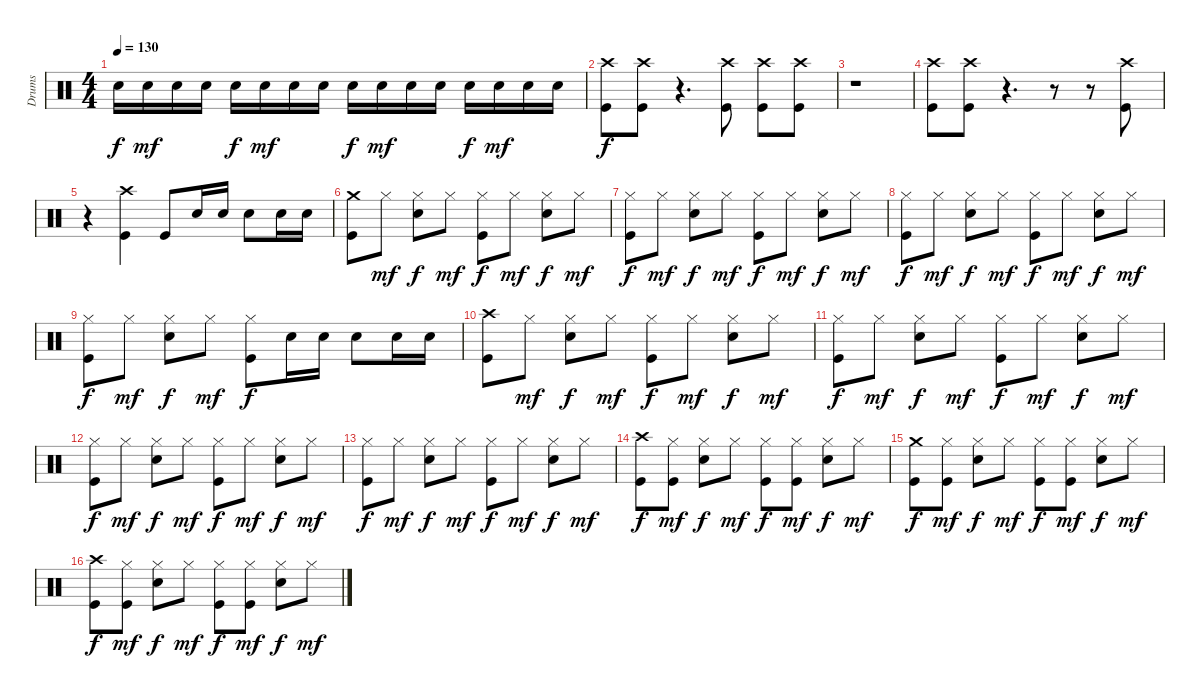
\track ("Drums" "Drums") {instrument percussion}
\staff {score}
\articulation defaults
\ts (4 4)
\tempo 130
\clef neutral
\ks c "Snare (hit) 2".16{dy f} "Snare (hit) 2".16{dy mf} "Snare (hit) 2".16 "Snare (hit) 2".16 "Snare (hit) 2".16{dy f} "Snare (hit) 2".16{dy mf} "Snare (hit) 2".16 "Snare (hit) 2".16 "Snare (hit) 2".16{dy f} "Snare (hit) 2".16{dy mf} "Snare (hit) 2".16 "Snare (hit) 2".16 "Snare (hit) 2".16{dy f} "Snare (hit) 2".16{dy mf} "Snare (hit) 2".16 "Snare (hit) 2".16
|
("Kick (hit)" "Crash high (hit)").8{dy f} ("Kick (hit)" "Crash high (hit)").8 r.4{d} ("Kick (hit)" "Crash high (hit)").8 ("Kick (hit)" "Crash high (hit)").8 ("Kick (hit)" "Crash high (hit)").8 |
r.1 |
("Kick (hit)" "Crash high (hit)").8 ("Kick (hit)" "Crash high (hit)").8 r.4{d} r.8 r.8 ("Kick (hit)" "Crash high (hit)").8 |
r.4 ("Kick (hit)" "Crash high (hit)").4 "Kick (hit)".8 "Snare (hit) 2".16 "Snare (hit) 2".16 "Snare (hit) 2".8 "Snare (hit) 2".16 "Snare (hit) 2".16 |
("Kick (hit)" "Crash medium (hit)").8 "Hi-Hat (closed)".8{dy mf} ("Hi-Hat (closed)" "Snare (hit) 2").8{dy f} "Hi-Hat (closed)".8{dy mf} ("Hi-Hat (closed)" "Kick (hit)").8{dy f} "Hi-Hat (closed)".8{dy mf} ("Hi-Hat (closed)" "Snare (hit) 2").8{dy f} "Hi-Hat (closed)".8{dy mf} |
("Hi-Hat (closed)" "Kick (hit)").8{dy f} "Hi-Hat (closed)".8{dy mf} ("Hi-Hat (closed)" "Snare (hit) 2").8{dy f} "Hi-Hat (closed)".8{dy mf} ("Hi-Hat (closed)" "Kick (hit)").8{dy f} "Hi-Hat (closed)".8{dy mf} ("Hi-Hat (closed)" "Snare (hit) 2").8{dy f} "Hi-Hat (closed)".8{dy mf} |
("Hi-Hat (closed)" "Kick (hit)").8{dy f} "Hi-Hat (closed)".8{dy mf} ("Hi-Hat (closed)" "Snare (hit) 2").8{dy f} "Hi-Hat (closed)".8{dy mf} ("Hi-Hat (closed)" "Kick (hit)").8{dy f} "Hi-Hat (closed)".8{dy mf} ("Hi-Hat (closed)" "Snare (hit) 2").8{dy f} "Hi-Hat (closed)".8{dy mf} |
("Hi-Hat (closed)" "Kick (hit)").8{dy f} "Hi-Hat (closed)".8{dy mf} ("Hi-Hat (closed)" "Snare (hit) 2").8{dy f} "Hi-Hat (closed)".8{dy mf} ("Hi-Hat (closed)" "Kick (hit)").8{dy f} "Snare (hit) 2".16 "Snare (hit) 2".16 "Snare (hit) 2".8 "Snare (hit) 2".16 "Snare (hit) 2".16 |
("Kick (hit)" "Crash high (hit)").8 "Hi-Hat (closed)".8{dy mf} ("Hi-Hat (closed)" "Snare (hit) 2").8{dy f} "Hi-Hat (closed)".8{dy mf} ("Hi-Hat (closed)" "Kick (hit)").8{dy f} "Hi-Hat (closed)".8{dy mf} ("Hi-Hat (closed)" "Snare (hit) 2").8{dy f} "Hi-Hat (closed)".8{dy mf} |
("Hi-Hat (closed)" "Kick (hit)").8{dy f} "Hi-Hat (closed)".8{dy mf} ("Hi-Hat (closed)" "Snare (hit) 2").8{dy f} "Hi-Hat (closed)".8{dy mf} ("Hi-Hat (closed)" "Kick (hit)").8{dy f} "Hi-Hat (closed)".8{dy mf} ("Hi-Hat (closed)" "Snare (hit) 2").8{dy f} "Hi-Hat (closed)".8{dy mf} |
("Hi-Hat (closed)" "Kick (hit)").8{dy f} "Hi-Hat (closed)".8{dy mf} ("Hi-Hat (closed)" "Snare (hit) 2").8{dy f} "Hi-Hat (closed)".8{dy mf} ("Hi-Hat (closed)" "Kick (hit)").8{dy f} "Hi-Hat (closed)".8{dy mf} ("Hi-Hat (closed)" "Snare (hit) 2").8{dy f} "Hi-Hat (closed)".8{dy mf} |
("Hi-Hat (closed)" "Kick (hit)").8{dy f} "Hi-Hat (closed)".8{dy mf} ("Hi-Hat (closed)" "Snare (hit) 2").8{dy f} "Hi-Hat (closed)".8{dy mf} ("Hi-Hat (closed)" "Kick (hit)").8{dy f} "Hi-Hat (closed)".8{dy mf} ("Hi-Hat (closed)" "Snare (hit) 2").8{dy f} "Hi-Hat (closed)".8{dy mf} |
("Kick (hit)" "Crash high (hit)").8{dy f} ("Hi-Hat (closed)" "Kick (hit)").8{dy mf} ("Hi-Hat (closed)" "Snare (hit) 2").8{dy f} "Hi-Hat (closed)".8{dy mf} ("Hi-Hat (closed)" "Kick (hit)").8{dy f} ("Hi-Hat (closed)" "Kick (hit)").8{dy mf} ("Hi-Hat (closed)" "Snare (hit) 2").8{dy f} "Hi-Hat (closed)".8{dy mf} |
("Kick (hit)" "Crash medium (hit)").8{dy f} ("Hi-Hat (closed)" "Kick (hit)").8{dy mf} ("Hi-Hat (closed)" "Snare (hit) 2").8{dy f} "Hi-Hat (closed)".8{dy mf} ("Hi-Hat (closed)" "Kick (hit)").8{dy f} ("Hi-Hat (closed)" "Kick (hit)").8{dy mf} ("Hi-Hat (closed)" "Snare (hit) 2").8{dy f} "Hi-Hat (closed)".8{dy mf} |
("Kick (hit)" "Crash high (hit)").8{dy f} ("Hi-Hat (closed)" "Kick (hit)").8{dy mf} ("Hi-Hat (closed)" "Snare (hit) 2").8{dy f} "Hi-Hat (closed)".8{dy mf} ("Hi-Hat (closed)" "Kick (hit)").8{dy f} ("Hi-Hat (closed)" "Kick (hit)").8{dy mf} ("Hi-Hat (closed)" "Snare (hit) 2").8{dy f} "Hi-Hat (closed)".8{dy mf}
